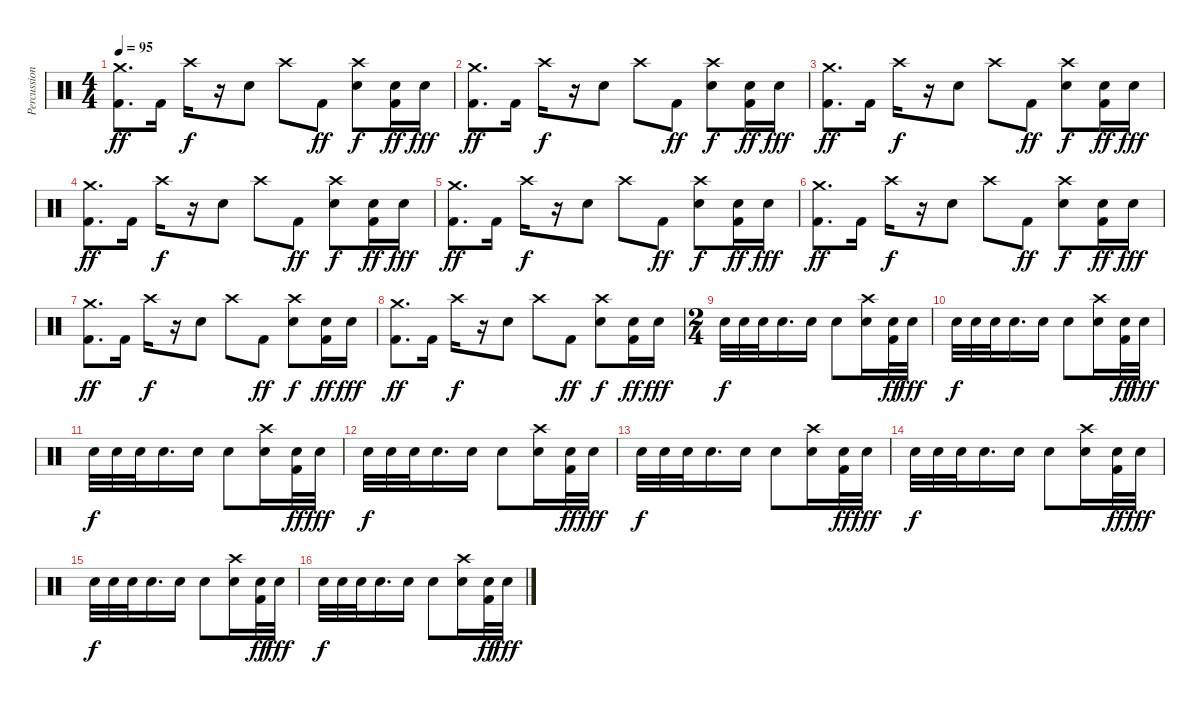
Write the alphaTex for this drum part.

\track ("Percussion" "Percussion") {instrument percussion}
\staff {score}
\articulation defaults
\ts (4 4)
\tempo 95
\clef neutral
\ks c
("Crash medium (hit)" "Kick (hit) 2").8{d dy ff} "Kick (hit) 2".16 "Crash high (hit)".16{dy f} r.16 "Electric Snare (hit)".8 "Crash high (hit)".8 "Kick (hit) 2".8{dy ff} ("Crash high (hit)" "Electric Snare (hit)").8{dy f} ("Electric Snare (hit)" "Kick (hit) 2").16{dy ff} "Electric Snare (hit)".16{dy fff} |
("Crash medium (hit)" "Kick (hit) 2").8{d dy ff} "Kick (hit) 2".16 "Crash high (hit)".16{dy f} r.16 "Electric Snare (hit)".8 "Crash high (hit)".8 "Kick (hit) 2".8{dy ff} ("Crash high (hit)" "Electric Snare (hit)").8{dy f} ("Electric Snare (hit)" "Kick (hit) 2").16{dy ff} "Electric Snare (hit)".16{dy fff} |
("Crash medium (hit)" "Kick (hit) 2").8{d dy ff} "Kick (hit) 2".16 "Crash high (hit)".16{dy f} r.16 "Electric Snare (hit)".8 "Crash high (hit)".8 "Kick (hit) 2".8{dy ff} ("Crash high (hit)" "Electric Snare (hit)").8{dy f} ("Electric Snare (hit)" "Kick (hit) 2").16{dy ff} "Electric Snare (hit)".16{dy fff} |
("Crash medium (hit)" "Kick (hit) 2").8{d dy ff} "Kick (hit) 2".16 "Crash high (hit)".16{dy f} r.16 "Electric Snare (hit)".8 "Crash high (hit)".8 "Kick (hit) 2".8{dy ff} ("Crash high (hit)" "Electric Snare (hit)").8{dy f} ("Electric Snare (hit)" "Kick (hit) 2").16{dy ff} "Electric Snare (hit)".16{dy fff} |
("Crash medium (hit)" "Kick (hit) 2").8{d dy ff} "Kick (hit) 2".16 "Crash high (hit)".16{dy f} r.16 "Electric Snare (hit)".8 "Crash high (hit)".8 "Kick (hit) 2".8{dy ff} ("Crash high (hit)" "Electric Snare (hit)").8{dy f} ("Electric Snare (hit)" "Kick (hit) 2").16{dy ff} "Electric Snare (hit)".16{dy fff} |
("Crash medium (hit)" "Kick (hit) 2").8{d dy ff} "Kick (hit) 2".16 "Crash high (hit)".16{dy f} r.16 "Electric Snare (hit)".8 "Crash high (hit)".8 "Kick (hit) 2".8{dy ff} ("Crash high (hit)" "Electric Snare (hit)").8{dy f} ("Electric Snare (hit)" "Kick (hit) 2").16{dy ff} "Electric Snare (hit)".16{dy fff} |
("Crash medium (hit)" "Kick (hit) 2").8{d dy ff} "Kick (hit) 2".16 "Crash high (hit)".16{dy f} r.16 "Electric Snare (hit)".8 "Crash high (hit)".8 "Kick (hit) 2".8{dy ff} ("Crash high (hit)" "Electric Snare (hit)").8{dy f} ("Electric Snare (hit)" "Kick (hit) 2").16{dy ff} "Electric Snare (hit)".16{dy fff} |
("Crash medium (hit)" "Kick (hit) 2").8{d dy ff} "Kick (hit) 2".16 "Crash high (hit)".16{dy f} r.16 "Electric Snare (hit)".8 "Crash high (hit)".8 "Kick (hit) 2".8{dy ff} ("Crash high (hit)" "Electric Snare (hit)").8{dy f} ("Electric Snare (hit)" "Kick (hit) 2").16{dy ff} "Electric Snare (hit)".16{dy fff} |
\ts (2 4)
"Electric Snare (hit)".32{dy f} "Electric Snare (hit)".32 "Electric Snare (hit)".32 "Electric Snare (hit)".16{d} "Electric Snare (hit)".16 "Electric Snare (hit)".8 ("Crash high (hit)" "Electric Snare (hit)").16 ("Electric Snare (hit)" "Kick (hit) 2").32{dy ff} "Electric Snare (hit)".32{dy fff} |
"Electric Snare (hit)".32{dy f} "Electric Snare (hit)".32 "Electric Snare (hit)".32 "Electric Snare (hit)".16{d} "Electric Snare (hit)".16 "Electric Snare (hit)".8 ("Crash high (hit)" "Electric Snare (hit)").16 ("Electric Snare (hit)" "Kick (hit) 2").32{dy ff} "Electric Snare (hit)".32{dy fff} |
"Electric Snare (hit)".32{dy f} "Electric Snare (hit)".32 "Electric Snare (hit)".32 "Electric Snare (hit)".16{d} "Electric Snare (hit)".16 "Electric Snare (hit)".8 ("Crash high (hit)" "Electric Snare (hit)").16 ("Electric Snare (hit)" "Kick (hit) 2").32{dy ff} "Electric Snare (hit)".32{dy fff} |
"Electric Snare (hit)".32{dy f} "Electric Snare (hit)".32 "Electric Snare (hit)".32 "Electric Snare (hit)".16{d} "Electric Snare (hit)".16 "Electric Snare (hit)".8 ("Crash high (hit)" "Electric Snare (hit)").16 ("Electric Snare (hit)" "Kick (hit) 2").32{dy ff} "Electric Snare (hit)".32{dy fff} |
"Electric Snare (hit)".32{dy f} "Electric Snare (hit)".32 "Electric Snare (hit)".32 "Electric Snare (hit)".16{d} "Electric Snare (hit)".16 "Electric Snare (hit)".8 ("Crash high (hit)" "Electric Snare (hit)").16 ("Electric Snare (hit)" "Kick (hit) 2").32{dy ff} "Electric Snare (hit)".32{dy fff} |
"Electric Snare (hit)".32{dy f} "Electric Snare (hit)".32 "Electric Snare (hit)".32 "Electric Snare (hit)".16{d} "Electric Snare (hit)".16 "Electric Snare (hit)".8 ("Crash high (hit)" "Electric Snare (hit)").16 ("Electric Snare (hit)" "Kick (hit) 2").32{dy ff} "Electric Snare (hit)".32{dy fff} |
"Electric Snare (hit)".32{dy f} "Electric Snare (hit)".32 "Electric Snare (hit)".32 "Electric Snare (hit)".16{d} "Electric Snare (hit)".16 "Electric Snare (hit)".8 ("Crash high (hit)" "Electric Snare (hit)").16 ("Electric Snare (hit)" "Kick (hit) 2").32{dy ff} "Electric Snare (hit)".32{dy fff} |
"Electric Snare (hit)".32{dy f} "Electric Snare (hit)".32 "Electric Snare (hit)".32 "Electric Snare (hit)".16{d} "Electric Snare (hit)".16 "Electric Snare (hit)".8 ("Crash high (hit)" "Electric Snare (hit)").16 ("Electric Snare (hit)" "Kick (hit) 2").32{dy ff} "Electric Snare (hit)".32{dy fff}
